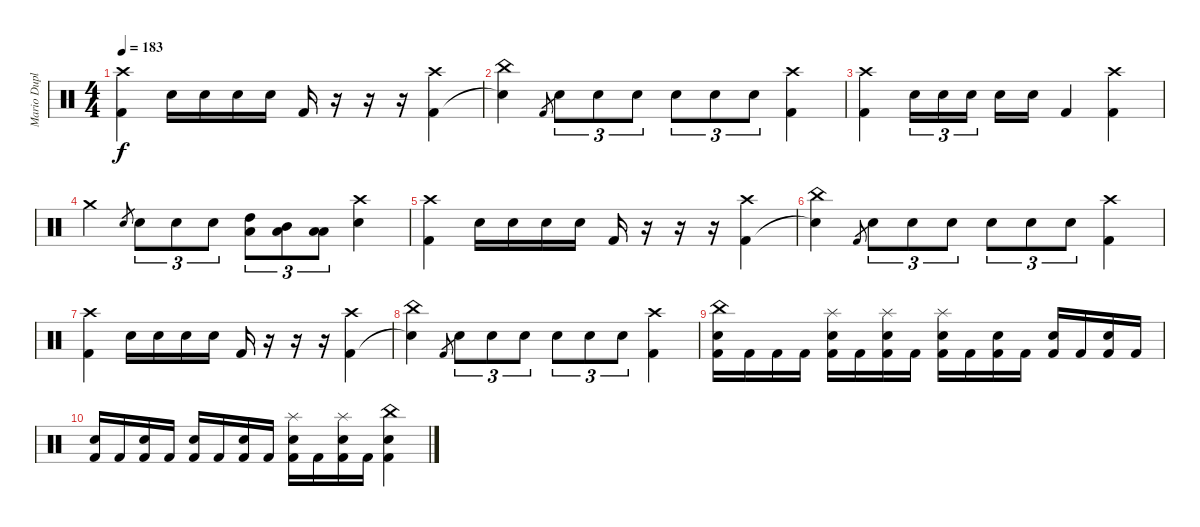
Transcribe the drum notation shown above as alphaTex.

\track ("Mario Duplantier" "Mario Dupl") {instrument percussion}
\staff {score}
\articulation defaults
\ts (4 4)
\tempo 183
\clef neutral
\ks c
("Crash high (hit)" "Kick (hit) 2").4{dy f} "Electric Snare (hit)".16 "Electric Snare (hit)".16 "Electric Snare (hit)".16 "Electric Snare (hit)".16 "Kick (hit) 2".16 r.16 r.16 r.16 ("Crash high (hit)" "Kick (hit) 2").4 |
("China (hit)" "Snare (hit)"{t}).4 "Kick (hit) 2".8{gr} "Electric Snare (hit)".8{tu (3 2)} "Electric Snare (hit)".8{tu (3 2)} "Electric Snare (hit)".8{tu (3 2)} "Electric Snare (hit)".8{tu (3 2)} "Electric Snare (hit)".8{tu (3 2)} "Electric Snare (hit)".8{tu (3 2)} ("Crash high (hit)" "Kick (hit) 2").4 |
("Crash high (hit)" "Kick (hit) 2").4 "Electric Snare (hit)".16{tu (3 2)} "Electric Snare (hit)".16{tu (3 2)} "Electric Snare (hit)".16{tu (3 2) beam splitsecondary} "Electric Snare (hit)".16 "Electric Snare (hit)".16 "Kick (hit) 2".4 ("Crash high (hit)" "Kick (hit) 2").4 |
"Crash medium (hit)".4 "Electric Snare (hit)".8{gr} "Electric Snare (hit)".8{tu (3 2)} "Electric Snare (hit)".8{tu (3 2)} "Electric Snare (hit)".8{tu (3 2)} ("High Tom (hit)" "Low Floor Tom (hit)").8{tu (3 2)} ("Mid Tom (hit)" "Low Floor Tom (hit)").8{tu (3 2)} ("Low Tom (hit)" "Low Floor Tom (hit)").8{tu (3 2)} ("Crash high (hit)" "Electric Snare (hit)").4 |
("Crash high (hit)" "Kick (hit) 2").4 "Electric Snare (hit)".16 "Electric Snare (hit)".16 "Electric Snare (hit)".16 "Electric Snare (hit)".16 "Kick (hit) 2".16 r.16 r.16 r.16 ("Crash high (hit)" "Kick (hit) 2").4 |
("China (hit)" "Snare (hit)"{t}).4 "Kick (hit) 2".8{gr} "Electric Snare (hit)".8{tu (3 2)} "Electric Snare (hit)".8{tu (3 2)} "Electric Snare (hit)".8{tu (3 2)} "Electric Snare (hit)".8{tu (3 2)} "Electric Snare (hit)".8{tu (3 2)} "Electric Snare (hit)".8{tu (3 2)} ("Crash high (hit)" "Kick (hit) 2").4 |
("Crash high (hit)" "Kick (hit) 2").4 "Electric Snare (hit)".16 "Electric Snare (hit)".16 "Electric Snare (hit)".16 "Electric Snare (hit)".16 "Kick (hit) 2".16 r.16 r.16 r.16 ("Crash high (hit)" "Kick (hit) 2").4 |
("China (hit)" "Snare (hit)"{t}).4 "Kick (hit) 2".8{gr} "Electric Snare (hit)".8{tu (3 2)} "Electric Snare (hit)".8{tu (3 2)} "Electric Snare (hit)".8{tu (3 2)} "Electric Snare (hit)".8{tu (3 2)} "Electric Snare (hit)".8{tu (3 2)} "Electric Snare (hit)".8{tu (3 2)} ("Crash high (hit)" "Kick (hit) 2").4 |
("China (hit)" "Electric Snare (hit)" "Kick (hit) 2").16 "Kick (hit) 2".16 "Kick (hit) 2".16 "Kick (hit) 2".16 ("Splash (hit)" "Electric Snare (hit)" "Kick (hit) 2").16 "Kick (hit) 2".16 ("Splash (hit)" "Electric Snare (hit)" "Kick (hit) 2").16 "Kick (hit) 2".16 ("Splash (hit)" "Electric Snare (hit)" "Kick (hit) 2").16 "Kick (hit) 2".16 ("Electric Snare (hit)" "Kick (hit) 2").16 "Kick (hit) 2".16 ("Electric Snare (hit)" "Kick (hit) 2").16 "Kick (hit) 2".16 ("Electric Snare (hit)" "Kick (hit) 2").16 "Kick (hit) 2".16 |
("Electric Snare (hit)" "Kick (hit) 2").16 "Kick (hit) 2".16 ("Electric Snare (hit)" "Kick (hit) 2").16 "Kick (hit) 2".16 ("Electric Snare (hit)" "Kick (hit) 2").16 "Kick (hit) 2".16 ("Electric Snare (hit)" "Kick (hit) 2").16 "Kick (hit) 2".16 ("Splash (hit)" "Electric Snare (hit)" "Kick (hit) 2").16 "Kick (hit) 2".16 ("Splash (hit)" "Electric Snare (hit)" "Kick (hit) 2").16 "Kick (hit) 2".16 ("China (hit)" "Electric Snare (hit)" "Kick (hit) 2").4
